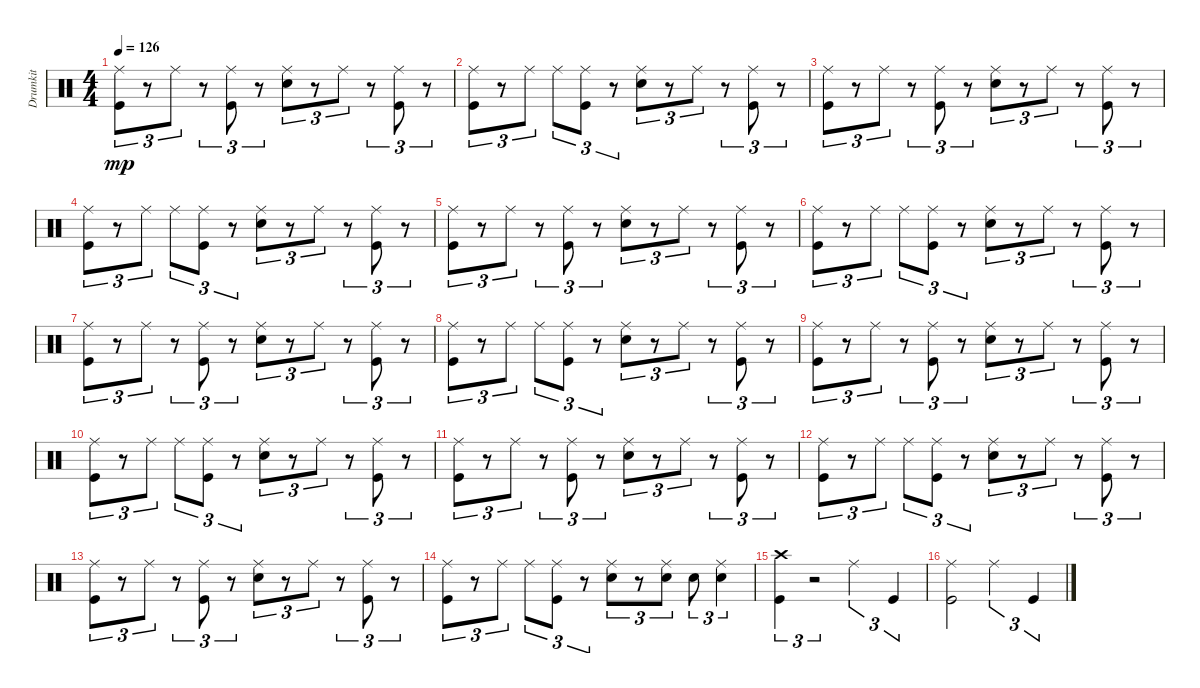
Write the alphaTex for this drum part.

\track ("Drumkit" "Drumkit") {instrument percussion}
\staff {score}
\articulation defaults
\ts (4 4)
\tempo 126
\clef neutral
\ks c
("Ride (middle)" "Kick (hit)").8{tu (3 2) dy mp} r.8{tu (3 2)} "Ride (middle)".8{tu (3 2)} r.8{tu (3 2)} ("Ride (middle)" "Kick (hit)").8{tu (3 2)} r.8{tu (3 2)} ("Ride (middle)" "Snare (hit) 2").8{tu (3 2)} r.8{tu (3 2)} "Ride (middle)".8{tu (3 2)} r.8{tu (3 2)} ("Ride (middle)" "Kick (hit)").8{tu (3 2)} r.8{tu (3 2)} |
("Ride (middle)" "Kick (hit)").8{tu (3 2)} r.8{tu (3 2)} "Ride (middle)".8{tu (3 2)} "Ride (middle)".8{tu (3 2)} ("Kick (hit)" "Ride (middle)").8{tu (3 2)} r.8{tu (3 2)} ("Snare (hit) 2" "Ride (middle)").8{tu (3 2)} r.8{tu (3 2)} "Ride (middle)".8{tu (3 2)} r.8{tu (3 2)} ("Kick (hit)" "Ride (middle)").8{tu (3 2)} r.8{tu (3 2)} |
("Ride (middle)" "Kick (hit)").8{tu (3 2)} r.8{tu (3 2)} "Ride (middle)".8{tu (3 2)} r.8{tu (3 2)} ("Ride (middle)" "Kick (hit)").8{tu (3 2)} r.8{tu (3 2)} ("Ride (middle)" "Snare (hit) 2").8{tu (3 2)} r.8{tu (3 2)} "Ride (middle)".8{tu (3 2)} r.8{tu (3 2)} ("Ride (middle)" "Kick (hit)").8{tu (3 2)} r.8{tu (3 2)} |
("Ride (middle)" "Kick (hit)").8{tu (3 2)} r.8{tu (3 2)} "Ride (middle)".8{tu (3 2)} "Ride (middle)".8{tu (3 2)} ("Kick (hit)" "Ride (middle)").8{tu (3 2)} r.8{tu (3 2)} ("Snare (hit) 2" "Ride (middle)").8{tu (3 2)} r.8{tu (3 2)} "Ride (middle)".8{tu (3 2)} r.8{tu (3 2)} ("Kick (hit)" "Ride (middle)").8{tu (3 2)} r.8{tu (3 2)} |
("Ride (middle)" "Kick (hit)").8{tu (3 2)} r.8{tu (3 2)} "Ride (middle)".8{tu (3 2)} r.8{tu (3 2)} ("Ride (middle)" "Kick (hit)").8{tu (3 2)} r.8{tu (3 2)} ("Ride (middle)" "Snare (hit) 2").8{tu (3 2)} r.8{tu (3 2)} "Ride (middle)".8{tu (3 2)} r.8{tu (3 2)} ("Ride (middle)" "Kick (hit)").8{tu (3 2)} r.8{tu (3 2)} |
("Ride (middle)" "Kick (hit)").8{tu (3 2)} r.8{tu (3 2)} "Ride (middle)".8{tu (3 2)} "Ride (middle)".8{tu (3 2)} ("Kick (hit)" "Ride (middle)").8{tu (3 2)} r.8{tu (3 2)} ("Snare (hit) 2" "Ride (middle)").8{tu (3 2)} r.8{tu (3 2)} "Ride (middle)".8{tu (3 2)} r.8{tu (3 2)} ("Kick (hit)" "Ride (middle)").8{tu (3 2)} r.8{tu (3 2)} |
("Ride (middle)" "Kick (hit)").8{tu (3 2)} r.8{tu (3 2)} "Ride (middle)".8{tu (3 2)} r.8{tu (3 2)} ("Ride (middle)" "Kick (hit)").8{tu (3 2)} r.8{tu (3 2)} ("Ride (middle)" "Snare (hit) 2").8{tu (3 2)} r.8{tu (3 2)} "Ride (middle)".8{tu (3 2)} r.8{tu (3 2)} ("Ride (middle)" "Kick (hit)").8{tu (3 2)} r.8{tu (3 2)} |
("Ride (middle)" "Kick (hit)").8{tu (3 2)} r.8{tu (3 2)} "Ride (middle)".8{tu (3 2)} "Ride (middle)".8{tu (3 2)} ("Kick (hit)" "Ride (middle)").8{tu (3 2)} r.8{tu (3 2)} ("Snare (hit) 2" "Ride (middle)").8{tu (3 2)} r.8{tu (3 2)} "Ride (middle)".8{tu (3 2)} r.8{tu (3 2)} ("Kick (hit)" "Ride (middle)").8{tu (3 2)} r.8{tu (3 2)} |
("Ride (middle)" "Kick (hit)").8{tu (3 2)} r.8{tu (3 2)} "Ride (middle)".8{tu (3 2)} r.8{tu (3 2)} ("Ride (middle)" "Kick (hit)").8{tu (3 2)} r.8{tu (3 2)} ("Ride (middle)" "Snare (hit) 2").8{tu (3 2)} r.8{tu (3 2)} "Ride (middle)".8{tu (3 2)} r.8{tu (3 2)} ("Ride (middle)" "Kick (hit)").8{tu (3 2)} r.8{tu (3 2)} |
("Ride (middle)" "Kick (hit)").8{tu (3 2)} r.8{tu (3 2)} "Ride (middle)".8{tu (3 2)} "Ride (middle)".8{tu (3 2)} ("Kick (hit)" "Ride (middle)").8{tu (3 2)} r.8{tu (3 2)} ("Snare (hit) 2" "Ride (middle)").8{tu (3 2)} r.8{tu (3 2)} "Ride (middle)".8{tu (3 2)} r.8{tu (3 2)} ("Kick (hit)" "Ride (middle)").8{tu (3 2)} r.8{tu (3 2)} |
("Ride (middle)" "Kick (hit)").8{tu (3 2)} r.8{tu (3 2)} "Ride (middle)".8{tu (3 2)} r.8{tu (3 2)} ("Ride (middle)" "Kick (hit)").8{tu (3 2)} r.8{tu (3 2)} ("Ride (middle)" "Snare (hit) 2").8{tu (3 2)} r.8{tu (3 2)} "Ride (middle)".8{tu (3 2)} r.8{tu (3 2)} ("Ride (middle)" "Kick (hit)").8{tu (3 2)} r.8{tu (3 2)} |
("Ride (middle)" "Kick (hit)").8{tu (3 2)} r.8{tu (3 2)} "Ride (middle)".8{tu (3 2)} "Ride (middle)".8{tu (3 2)} ("Kick (hit)" "Ride (middle)").8{tu (3 2)} r.8{tu (3 2)} ("Snare (hit) 2" "Ride (middle)").8{tu (3 2)} r.8{tu (3 2)} "Ride (middle)".8{tu (3 2)} r.8{tu (3 2)} ("Kick (hit)" "Ride (middle)").8{tu (3 2)} r.8{tu (3 2)} |
("Ride (middle)" "Kick (hit)").8{tu (3 2)} r.8{tu (3 2)} "Ride (middle)".8{tu (3 2)} r.8{tu (3 2)} ("Ride (middle)" "Kick (hit)").8{tu (3 2)} r.8{tu (3 2)} ("Ride (middle)" "Snare (hit) 2").8{tu (3 2)} r.8{tu (3 2)} "Ride (middle)".8{tu (3 2)} r.8{tu (3 2)} ("Ride (middle)" "Kick (hit)").8{tu (3 2)} r.8{tu (3 2)} |
("Ride (middle)" "Kick (hit)").8{tu (3 2)} r.8{tu (3 2)} "Ride (middle)".8{tu (3 2)} "Ride (middle)".8{tu (3 2)} ("Kick (hit)" "Ride (middle)").8{tu (3 2)} r.8{tu (3 2)} ("Snare (hit) 2" "Ride (middle)").8{tu (3 2)} r.8{tu (3 2)} ("Ride (middle)" "Snare (hit) 2").8{tu (3 2)} "Snare (hit) 2".8{tu (3 2)} ("Ride (middle)" "Snare (hit) 2").4{tu (3 2)} |
("Kick (hit)" "Crash high (hit)").4{tu (3 2)} r.2{tu (3 2)} "Ride (middle)".2{tu (3 2)} "Kick (hit)".4{tu (3 2)} |
("Kick (hit)" "Ride (middle)").2 "Ride (middle)".2{tu (3 2)} "Kick (hit)".4{tu (3 2)}
